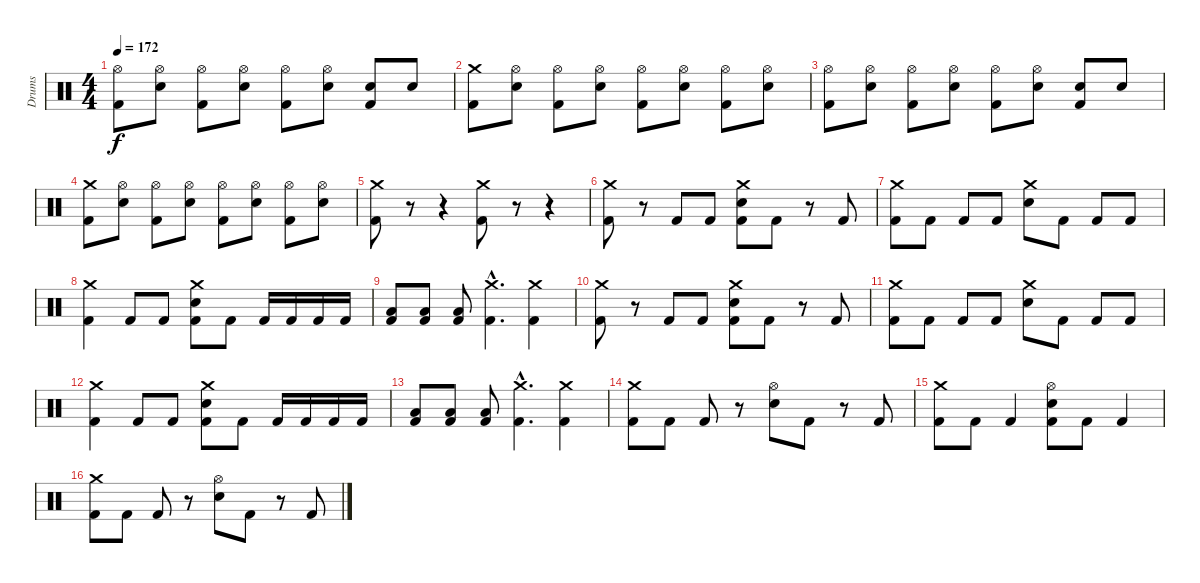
\track ("Drums" "Drums") {instrument percussion}
\staff {score}
\articulation defaults
\ts (4 4)
\tempo 172
\clef neutral
\ks c
("Hi-Hat (open)" "Kick (hit) 2").8{dy f} ("Hi-Hat (open)" "Snare (hit) 2").8 ("Hi-Hat (open)" "Kick (hit) 2").8 ("Hi-Hat (open)" "Snare (hit) 2").8 ("Hi-Hat (open)" "Kick (hit) 2").8 ("Hi-Hat (open)" "Snare (hit) 2").8 ("Snare (hit) 2" "Kick (hit) 2").8 "Snare (hit) 2".8 |
("Crash medium (hit)" "Kick (hit) 2").8 ("Hi-Hat (open)" "Snare (hit) 2").8 ("Hi-Hat (open)" "Kick (hit) 2").8 ("Hi-Hat (open)" "Snare (hit) 2").8 ("Hi-Hat (open)" "Kick (hit) 2").8 ("Hi-Hat (open)" "Snare (hit) 2").8 ("Hi-Hat (open)" "Kick (hit) 2").8 ("Hi-Hat (open)" "Snare (hit) 2").8 |
("Hi-Hat (open)" "Kick (hit) 2").8 ("Hi-Hat (open)" "Snare (hit) 2").8 ("Hi-Hat (open)" "Kick (hit) 2").8 ("Hi-Hat (open)" "Snare (hit) 2").8 ("Hi-Hat (open)" "Kick (hit) 2").8 ("Hi-Hat (open)" "Snare (hit) 2").8 ("Snare (hit) 2" "Kick (hit) 2").8 "Snare (hit) 2".8 |
("Crash medium (hit)" "Kick (hit) 2").8 ("Hi-Hat (open)" "Snare (hit) 2").8 ("Hi-Hat (open)" "Kick (hit) 2").8 ("Hi-Hat (open)" "Snare (hit) 2").8 ("Hi-Hat (open)" "Kick (hit) 2").8 ("Hi-Hat (open)" "Snare (hit) 2").8 ("Hi-Hat (open)" "Kick (hit) 2").8 ("Hi-Hat (open)" "Snare (hit) 2").8 |
("Crash medium (hit)" "Kick (hit) 2").8 r.8 r.4 ("Crash medium (hit)" "Kick (hit) 2").8 r.8 r.4 |
("Crash medium (hit)" "Kick (hit) 2").8 r.8 "Kick (hit) 2".8 "Kick (hit) 2".8 ("Crash medium (hit)" "Snare (hit) 2" "Kick (hit) 2").8 "Kick (hit) 2".8 r.8 "Kick (hit) 2".8 |
("Crash medium (hit)" "Kick (hit) 2").8 "Kick (hit) 2".8 "Kick (hit) 2".8 "Kick (hit) 2".8 ("Crash medium (hit)" "Snare (hit) 2").8 "Kick (hit) 2".8 "Kick (hit) 2".8 "Kick (hit) 2".8 |
("Crash medium (hit)" "Kick (hit) 2").4 "Kick (hit) 2".8 "Kick (hit) 2".8 ("Crash medium (hit)" "Snare (hit) 2" "Kick (hit) 2").8 "Kick (hit) 2".8 "Kick (hit) 2".16 "Kick (hit) 2".16 "Kick (hit) 2".16 "Kick (hit) 2".16 |
("Low Tom (hit)" "Kick (hit) 2").8 ("Low Tom (hit)" "Kick (hit) 2").8 ("Low Tom (hit)" "Kick (hit) 2").8 ("Crash medium (hit)"{hac} "Kick (hit) 2"{hac}).4{d} ("Crash medium (hit)" "Kick (hit) 2").4 |
("Crash medium (hit)" "Kick (hit) 2").8 r.8 "Kick (hit) 2".8 "Kick (hit) 2".8 ("Crash medium (hit)" "Snare (hit) 2" "Kick (hit) 2").8 "Kick (hit) 2".8 r.8 "Kick (hit) 2".8 |
("Crash medium (hit)" "Kick (hit) 2").8 "Kick (hit) 2".8 "Kick (hit) 2".8 "Kick (hit) 2".8 ("Crash medium (hit)" "Snare (hit) 2").8 "Kick (hit) 2".8 "Kick (hit) 2".8 "Kick (hit) 2".8 |
("Crash medium (hit)" "Kick (hit) 2").4 "Kick (hit) 2".8 "Kick (hit) 2".8 ("Crash medium (hit)" "Snare (hit) 2" "Kick (hit) 2").8 "Kick (hit) 2".8 "Kick (hit) 2".16 "Kick (hit) 2".16 "Kick (hit) 2".16 "Kick (hit) 2".16 |
("Low Tom (hit)" "Kick (hit) 2").8 ("Low Tom (hit)" "Kick (hit) 2").8 ("Low Tom (hit)" "Kick (hit) 2").8 ("Crash medium (hit)"{hac} "Kick (hit) 2"{hac}).4{d} ("Crash medium (hit)" "Kick (hit) 2").4 |
("Crash medium (hit)" "Kick (hit) 2").8 "Kick (hit) 2".8 "Kick (hit) 2".8 r.8 ("Hi-Hat (open)" "Snare (hit) 2").8 "Kick (hit) 2".8 r.8 "Kick (hit) 2".8 |
("Crash medium (hit)" "Kick (hit) 2").8 "Kick (hit) 2".8 "Kick (hit) 2".4 ("Hi-Hat (open)" "Snare (hit) 2" "Kick (hit) 2").8 "Kick (hit) 2".8 "Kick (hit) 2".4 |
("Crash medium (hit)" "Kick (hit) 2").8 "Kick (hit) 2".8 "Kick (hit) 2".8 r.8 ("Hi-Hat (open)" "Snare (hit) 2").8 "Kick (hit) 2".8 r.8 "Kick (hit) 2".8
